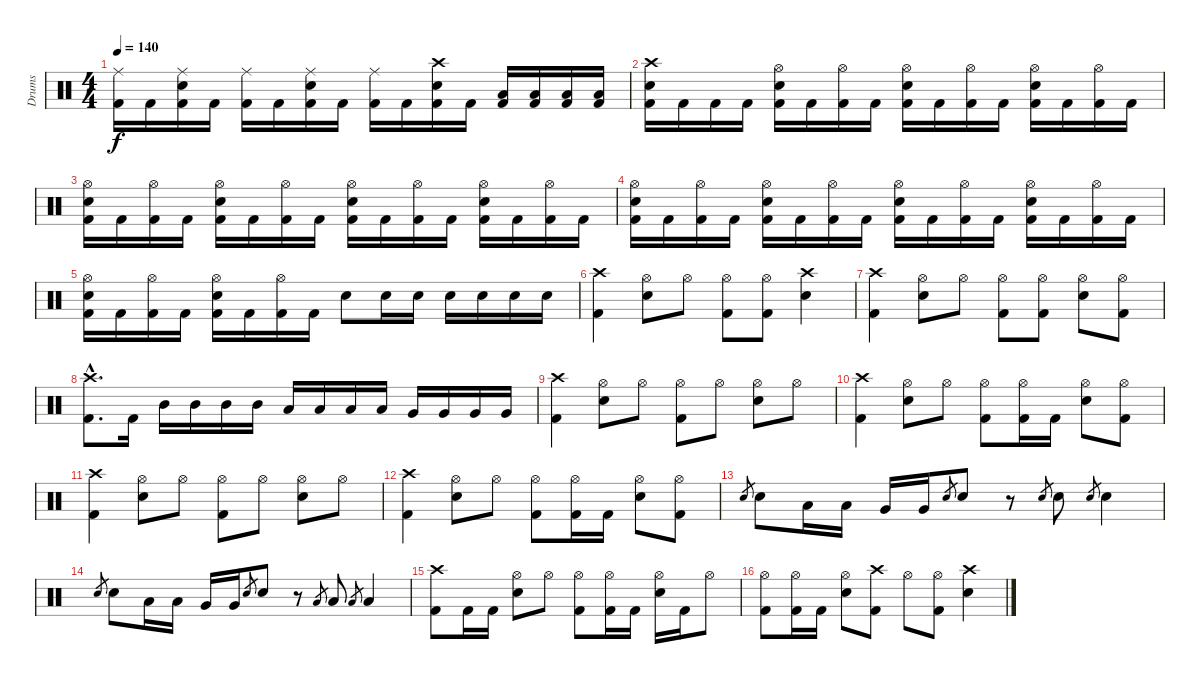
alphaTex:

\track ("Drums" "Drums") {instrument percussion}
\staff {score}
\articulation defaults
\ts (4 4)
\tempo 140
\clef neutral
\ks c
("Ride (middle)" "Kick (hit) 2").16{dy f} "Kick (hit) 2".16 ("Ride (middle)" "Electric Snare (hit)" "Kick (hit) 2").16 "Kick (hit) 2".16 ("Ride (middle)" "Kick (hit) 2").16 "Kick (hit) 2".16 ("Ride (middle)" "Electric Snare (hit)" "Kick (hit) 2").16 "Kick (hit) 2".16 ("Ride (middle)" "Kick (hit) 2").16 "Kick (hit) 2".16 ("Crash high (hit)" "Electric Snare (hit)" "Kick (hit) 2").16 "Kick (hit) 2".16 ("Low Tom (hit)" "Kick (hit) 2").16 ("Low Tom (hit)" "Kick (hit) 2").16 ("Low Tom (hit)" "Kick (hit) 2").16 ("Low Tom (hit)" "Kick (hit) 2").16 |
("Crash high (hit)" "Electric Snare (hit)" "Kick (hit) 2").16 "Kick (hit) 2".16 "Kick (hit) 2".16 "Kick (hit) 2".16 ("Hi-Hat (open)" "Electric Snare (hit)" "Kick (hit) 2").16 "Kick (hit) 2".16 ("Hi-Hat (open)" "Kick (hit) 2").16 "Kick (hit) 2".16 ("Hi-Hat (open)" "Electric Snare (hit)" "Kick (hit) 2").16 "Kick (hit) 2".16 ("Hi-Hat (open)" "Kick (hit) 2").16 "Kick (hit) 2".16 ("Hi-Hat (open)" "Electric Snare (hit)" "Kick (hit) 2").16 "Kick (hit) 2".16 ("Hi-Hat (open)" "Kick (hit) 2").16 "Kick (hit) 2".16 |
("Hi-Hat (open)" "Electric Snare (hit)" "Kick (hit) 2").16 "Kick (hit) 2".16 ("Hi-Hat (open)" "Kick (hit) 2").16 "Kick (hit) 2".16 ("Hi-Hat (open)" "Electric Snare (hit)" "Kick (hit) 2").16 "Kick (hit) 2".16 ("Hi-Hat (open)" "Kick (hit) 2").16 "Kick (hit) 2".16 ("Hi-Hat (open)" "Electric Snare (hit)" "Kick (hit) 2").16 "Kick (hit) 2".16 ("Hi-Hat (open)" "Kick (hit) 2").16 "Kick (hit) 2".16 ("Hi-Hat (open)" "Electric Snare (hit)" "Kick (hit) 2").16 "Kick (hit) 2".16 ("Hi-Hat (open)" "Kick (hit) 2").16 "Kick (hit) 2".16 |
("Hi-Hat (open)" "Electric Snare (hit)" "Kick (hit) 2").16 "Kick (hit) 2".16 ("Hi-Hat (open)" "Kick (hit) 2").16 "Kick (hit) 2".16 ("Hi-Hat (open)" "Electric Snare (hit)" "Kick (hit) 2").16 "Kick (hit) 2".16 ("Hi-Hat (open)" "Kick (hit) 2").16 "Kick (hit) 2".16 ("Hi-Hat (open)" "Electric Snare (hit)" "Kick (hit) 2").16 "Kick (hit) 2".16 ("Hi-Hat (open)" "Kick (hit) 2").16 "Kick (hit) 2".16 ("Hi-Hat (open)" "Electric Snare (hit)" "Kick (hit) 2").16 "Kick (hit) 2".16 ("Hi-Hat (open)" "Kick (hit) 2").16 "Kick (hit) 2".16 |
("Hi-Hat (open)" "Electric Snare (hit)" "Kick (hit) 2").16 "Kick (hit) 2".16 ("Hi-Hat (open)" "Kick (hit) 2").16 "Kick (hit) 2".16 ("Hi-Hat (open)" "Electric Snare (hit)" "Kick (hit) 2").16 "Kick (hit) 2".16 ("Hi-Hat (open)" "Kick (hit) 2").16 "Kick (hit) 2".16 "Electric Snare (hit)".8 "Electric Snare (hit)".16 "Electric Snare (hit)".16 "Electric Snare (hit)".16 "Electric Snare (hit)".16 "Electric Snare (hit)".16 "Electric Snare (hit)".16 |
("Crash high (hit)" "Kick (hit) 2").4 ("Hi-Hat (open)" "Electric Snare (hit)").8 "Hi-Hat (open)".8 ("Hi-Hat (open)" "Kick (hit) 2").8 ("Hi-Hat (open)" "Kick (hit) 2").8 ("Crash high (hit)" "Electric Snare (hit)").4 |
("Crash high (hit)" "Kick (hit) 2").4 ("Hi-Hat (open)" "Electric Snare (hit)").8 "Hi-Hat (open)".8 ("Hi-Hat (open)" "Kick (hit) 2").8 ("Hi-Hat (open)" "Kick (hit) 2").8 ("Hi-Hat (open)" "Electric Snare (hit)").8 ("Hi-Hat (open)" "Kick (hit) 2").8 |
("Crash high (hit)"{hac} "Kick (hit) 2"{hac}).8{d} "Kick (hit) 2".16 "Mid Tom (hit)".16 "Mid Tom (hit)".16 "Mid Tom (hit)".16 "Mid Tom (hit)".16 "Low Tom (hit)".16 "Low Tom (hit)".16 "Low Tom (hit)".16 "Low Tom (hit)".16 "Very Low Tom (hit)".16 "Very Low Tom (hit)".16 "Very Low Tom (hit)".16 "Very Low Tom (hit)".16 |
("Crash high (hit)" "Kick (hit) 2").4 ("Hi-Hat (open)" "Electric Snare (hit)").8 "Hi-Hat (open)".8 ("Hi-Hat (open)" "Kick (hit) 2").8 "Hi-Hat (open)".8 ("Hi-Hat (open)" "Electric Snare (hit)").8 "Hi-Hat (open)".8 |
("Crash high (hit)" "Kick (hit) 2").4 ("Hi-Hat (open)" "Electric Snare (hit)").8 "Hi-Hat (open)".8 ("Hi-Hat (open)" "Kick (hit) 2").8 ("Hi-Hat (open)" "Kick (hit) 2").16 "Kick (hit) 2".16 ("Hi-Hat (open)" "Electric Snare (hit)").8 ("Hi-Hat (open)" "Kick (hit) 2").8 |
("Crash high (hit)" "Kick (hit) 2").4 ("Hi-Hat (open)" "Electric Snare (hit)").8 "Hi-Hat (open)".8 ("Hi-Hat (open)" "Kick (hit) 2").8 "Hi-Hat (open)".8 ("Hi-Hat (open)" "Electric Snare (hit)").8 "Hi-Hat (open)".8 |
("Crash high (hit)" "Kick (hit) 2").4 ("Hi-Hat (open)" "Electric Snare (hit)").8 "Hi-Hat (open)".8 ("Hi-Hat (open)" "Kick (hit) 2").8 ("Hi-Hat (open)" "Kick (hit) 2").16 "Kick (hit) 2".16 ("Hi-Hat (open)" "Electric Snare (hit)").8 ("Hi-Hat (open)" "Kick (hit) 2").8 |
"Electric Snare (hit)".8{gr} "Electric Snare (hit)".8 "Low Tom (hit)".16 "Low Tom (hit)".16 "Very Low Tom (hit)".16 "Very Low Tom (hit)".16 "Electric Snare (hit)".8{gr} "Electric Snare (hit)".8 r.8 "Electric Snare (hit)".8{gr} "Electric Snare (hit)".8 "Electric Snare (hit)".8{gr} "Electric Snare (hit)".4 |
"Electric Snare (hit)".8{gr} "Electric Snare (hit)".8 "Low Tom (hit)".16 "Low Tom (hit)".16 "Very Low Tom (hit)".16 "Very Low Tom (hit)".16 "Electric Snare (hit)".8{gr} "Electric Snare (hit)".8 r.8 "Low Tom (hit)".8{gr} "Low Tom (hit)".8 "Low Tom (hit)".8{gr} "Low Tom (hit)".4 |
("Crash high (hit)" "Kick (hit) 2").8 "Kick (hit) 2".16 "Kick (hit) 2".16 ("Hi-Hat (open)" "Electric Snare (hit)").8 "Hi-Hat (open)".8 ("Hi-Hat (open)" "Kick (hit) 2").8 ("Hi-Hat (open)" "Kick (hit) 2").16 "Kick (hit) 2".16 ("Hi-Hat (open)" "Electric Snare (hit)").16 "Kick (hit) 2".16 "Hi-Hat (open)".8 |
("Hi-Hat (open)" "Kick (hit) 2").8 ("Hi-Hat (open)" "Kick (hit) 2").16 "Kick (hit) 2".16 ("Hi-Hat (open)" "Electric Snare (hit)").8 ("Crash high (hit)" "Kick (hit) 2").8 "Hi-Hat (open)".8 ("Hi-Hat (open)" "Kick (hit) 2").8 ("Crash high (hit)" "Electric Snare (hit)").4
